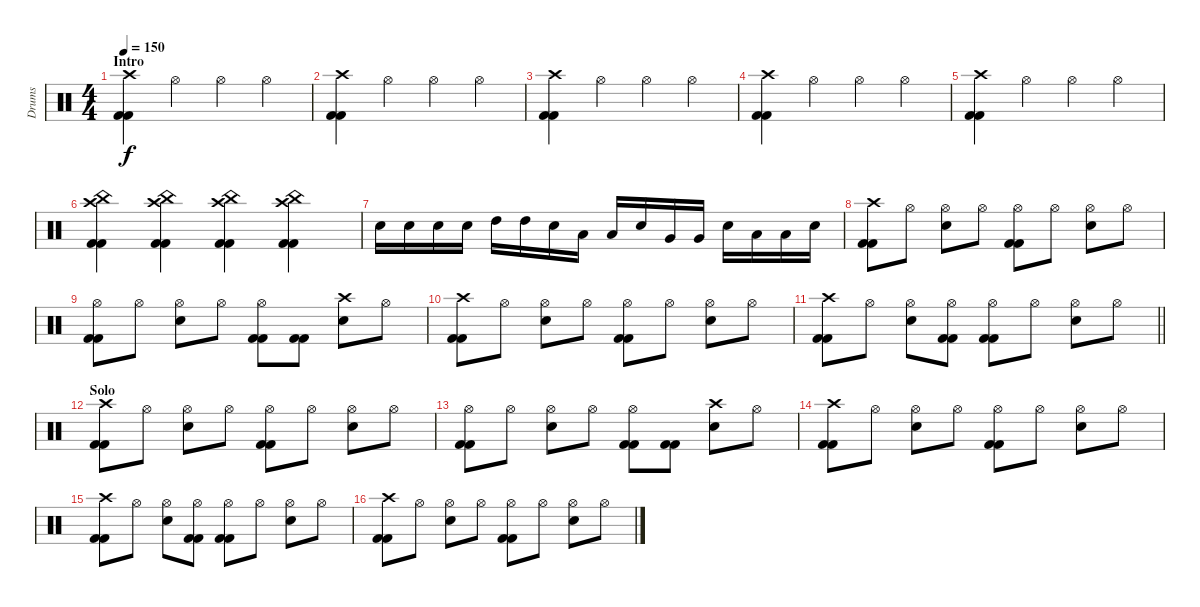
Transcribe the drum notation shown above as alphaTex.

\track ("Drums" "Drums") {instrument percussion}
\staff {score}
\articulation defaults
\ts (4 4)
\section ("" "Intro")
\tempo 150
\clef neutral
\ks c
("Crash high (hit)" "Kick (hit) 2" "Kick (hit) 2").4{dy f} "Hi-Hat (open)".4 "Hi-Hat (open)".4 "Hi-Hat (open)".4 |
("Crash high (hit)" "Kick (hit) 2" "Kick (hit) 2").4 "Hi-Hat (open)".4 "Hi-Hat (open)".4 "Hi-Hat (open)".4 |
("Crash high (hit)" "Kick (hit) 2" "Kick (hit) 2").4 "Hi-Hat (open)".4 "Hi-Hat (open)".4 "Hi-Hat (open)".4 |
("Crash high (hit)" "Kick (hit) 2" "Kick (hit) 2").4 "Hi-Hat (open)".4 "Hi-Hat (open)".4 "Hi-Hat (open)".4 |
("Crash high (hit)" "Kick (hit) 2" "Kick (hit) 2").4 "Hi-Hat (open)".4 "Hi-Hat (open)".4 "Hi-Hat (open)".4 |
("Crash high (hit)" "China (hit)" "Kick (hit) 2" "Kick (hit) 2").4 ("Crash high (hit)" "China (hit)" "Kick (hit) 2" "Kick (hit) 2").4 ("Crash high (hit)" "China (hit)" "Kick (hit) 2" "Kick (hit) 2").4 ("Crash high (hit)" "China (hit)" "Kick (hit) 2" "Kick (hit) 2").4 |
"Electric Snare (hit)".16 "Electric Snare (hit)".16 "Electric Snare (hit)".16 "Electric Snare (hit)".16 "High Tom (hit)".16 "High Tom (hit)".16 "Electric Snare (hit)".16 "Low Tom (hit)".16 "Low Tom (hit)".16 "Electric Snare (hit)".16 "Very Low Tom (hit)".16 "Very Low Tom (hit)".16 "Electric Snare (hit)".16 "Low Floor Tom (hit)".16 "Low Floor Tom (hit)".16 "Electric Snare (hit)".16 |
("Crash high (hit)" "Kick (hit) 2" "Kick (hit) 2").8 "Hi-Hat (open)".8 ("Electric Snare (hit)" "Hi-Hat (open)").8 "Hi-Hat (open)".8 ("Hi-Hat (open)" "Kick (hit) 2" "Kick (hit) 2").8 "Hi-Hat (open)".8 ("Electric Snare (hit)" "Hi-Hat (open)").8 "Hi-Hat (open)".8 |
("Hi-Hat (open)" "Kick (hit) 2" "Kick (hit) 2").8 "Hi-Hat (open)".8 ("Electric Snare (hit)" "Hi-Hat (open)").8 "Hi-Hat (open)".8 ("Hi-Hat (open)" "Kick (hit) 2" "Kick (hit) 2").8 ("Kick (hit) 2" "Kick (hit) 2").8 ("Electric Snare (hit)" "Crash high (hit)").8 "Hi-Hat (open)".8 |
("Crash high (hit)" "Kick (hit) 2" "Kick (hit) 2").8 "Hi-Hat (open)".8 ("Electric Snare (hit)" "Hi-Hat (open)").8 "Hi-Hat (open)".8 ("Hi-Hat (open)" "Kick (hit) 2" "Kick (hit) 2").8 "Hi-Hat (open)".8 ("Electric Snare (hit)" "Hi-Hat (open)").8 "Hi-Hat (open)".8 |
\barLineRight lightlight
("Crash high (hit)" "Kick (hit) 2" "Kick (hit) 2").8 "Hi-Hat (open)".8 ("Electric Snare (hit)" "Hi-Hat (open)").8 ("Kick (hit) 2" "Kick (hit) 2" "Hi-Hat (open)").8 ("Hi-Hat (open)" "Kick (hit) 2" "Kick (hit) 2").8 "Hi-Hat (open)".8 ("Electric Snare (hit)" "Hi-Hat (open)").8 "Hi-Hat (open)".8 |
\section ("" "Solo")
("Crash high (hit)" "Kick (hit) 2" "Kick (hit) 2").8 "Hi-Hat (open)".8 ("Electric Snare (hit)" "Hi-Hat (open)").8 "Hi-Hat (open)".8 ("Hi-Hat (open)" "Kick (hit) 2" "Kick (hit) 2").8 "Hi-Hat (open)".8 ("Electric Snare (hit)" "Hi-Hat (open)").8 "Hi-Hat (open)".8 |
("Hi-Hat (open)" "Kick (hit) 2" "Kick (hit) 2").8 "Hi-Hat (open)".8 ("Electric Snare (hit)" "Hi-Hat (open)").8 "Hi-Hat (open)".8 ("Hi-Hat (open)" "Kick (hit) 2" "Kick (hit) 2").8 ("Kick (hit) 2" "Kick (hit) 2").8 ("Electric Snare (hit)" "Crash high (hit)").8 "Hi-Hat (open)".8 |
("Crash high (hit)" "Kick (hit) 2" "Kick (hit) 2").8 "Hi-Hat (open)".8 ("Electric Snare (hit)" "Hi-Hat (open)").8 "Hi-Hat (open)".8 ("Hi-Hat (open)" "Kick (hit) 2" "Kick (hit) 2").8 "Hi-Hat (open)".8 ("Electric Snare (hit)" "Hi-Hat (open)").8 "Hi-Hat (open)".8 |
("Crash high (hit)" "Kick (hit) 2" "Kick (hit) 2").8 "Hi-Hat (open)".8 ("Electric Snare (hit)" "Hi-Hat (open)").8 ("Kick (hit) 2" "Kick (hit) 2" "Hi-Hat (open)").8 ("Hi-Hat (open)" "Kick (hit) 2" "Kick (hit) 2").8 "Hi-Hat (open)".8 ("Electric Snare (hit)" "Hi-Hat (open)").8 "Hi-Hat (open)".8 |
("Crash high (hit)" "Kick (hit) 2" "Kick (hit) 2").8 "Hi-Hat (open)".8 ("Electric Snare (hit)" "Hi-Hat (open)").8 "Hi-Hat (open)".8 ("Hi-Hat (open)" "Kick (hit) 2" "Kick (hit) 2").8 "Hi-Hat (open)".8 ("Electric Snare (hit)" "Hi-Hat (open)").8 "Hi-Hat (open)".8
